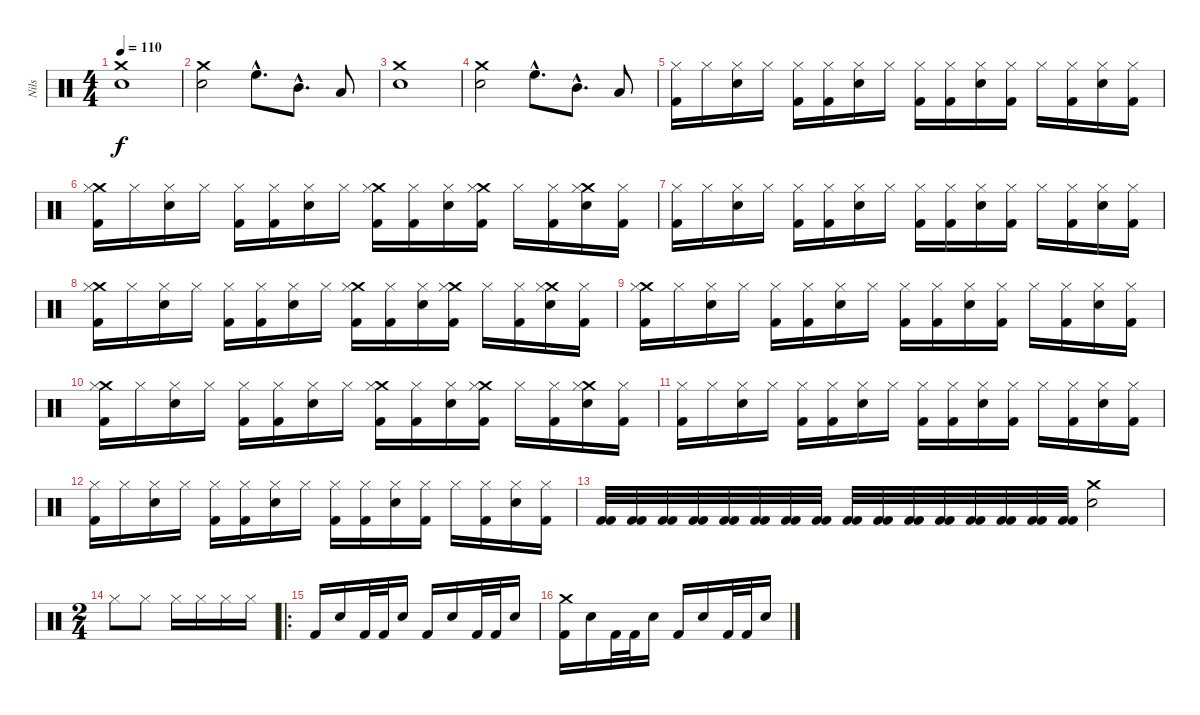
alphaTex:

\track ("Nils" "Nils") {instrument percussion}
\staff {score}
\articulation defaults
\ts (4 4)
\tempo 110
\clef neutral
\ks c
("Snare (hit) 2" "Crash medium (hit)").1{dy f} |
("Snare (hit) 2" "Crash medium (hit)").2 "High Floor Tom (hit)"{hac}.8{d} "Mid Tom (hit)"{hac}.8{d} "Low Tom (hit)".8 |
("Snare (hit) 2" "Crash medium (hit)").1 |
("Snare (hit) 2" "Crash medium (hit)").2 "High Floor Tom (hit)"{hac}.8{d} "Mid Tom (hit)"{hac}.8{d} "Low Tom (hit)".8 |
("Kick (hit) 2" "Hi-Hat (closed)").16 "Hi-Hat (closed)".16 ("Snare (hit) 2" "Hi-Hat (closed)").16 "Hi-Hat (closed)".16 ("Kick (hit) 2" "Hi-Hat (closed)").16 ("Kick (hit) 2" "Hi-Hat (closed)").16 ("Snare (hit) 2" "Hi-Hat (closed)").16 "Hi-Hat (closed)".16 ("Kick (hit) 2" "Hi-Hat (closed)").16 ("Kick (hit) 2" "Hi-Hat (closed)").16 ("Snare (hit) 2" "Hi-Hat (closed)").16 ("Kick (hit) 2" "Hi-Hat (closed)").16 "Hi-Hat (closed)".16 ("Kick (hit) 2" "Hi-Hat (closed)").16 ("Snare (hit) 2" "Hi-Hat (closed)").16 ("Kick (hit) 2" "Hi-Hat (closed)").16 |
("Crash medium (hit)" "Kick (hit) 2" "Hi-Hat (closed)").16 "Hi-Hat (closed)".16 ("Snare (hit) 2" "Hi-Hat (closed)").16 "Hi-Hat (closed)".16 ("Kick (hit) 2" "Hi-Hat (closed)").16 ("Kick (hit) 2" "Hi-Hat (closed)").16 ("Snare (hit) 2" "Hi-Hat (closed)").16 "Hi-Hat (closed)".16 ("Crash medium (hit)" "Kick (hit) 2" "Hi-Hat (closed)").16 ("Kick (hit) 2" "Hi-Hat (closed)").16 ("Snare (hit) 2" "Hi-Hat (closed)").16 ("Crash medium (hit)" "Kick (hit) 2" "Hi-Hat (closed)").16 "Hi-Hat (closed)".16 ("Kick (hit) 2" "Hi-Hat (closed)").16 ("Crash medium (hit)" "Snare (hit) 2" "Hi-Hat (closed)").16 ("Kick (hit) 2" "Hi-Hat (closed)").16 |
("Kick (hit) 2" "Hi-Hat (closed)").16 "Hi-Hat (closed)".16 ("Snare (hit) 2" "Hi-Hat (closed)").16 "Hi-Hat (closed)".16 ("Kick (hit) 2" "Hi-Hat (closed)").16 ("Kick (hit) 2" "Hi-Hat (closed)").16 ("Snare (hit) 2" "Hi-Hat (closed)").16 "Hi-Hat (closed)".16 ("Kick (hit) 2" "Hi-Hat (closed)").16 ("Kick (hit) 2" "Hi-Hat (closed)").16 ("Snare (hit) 2" "Hi-Hat (closed)").16 ("Kick (hit) 2" "Hi-Hat (closed)").16 "Hi-Hat (closed)".16 ("Kick (hit) 2" "Hi-Hat (closed)").16 ("Snare (hit) 2" "Hi-Hat (closed)").16 ("Kick (hit) 2" "Hi-Hat (closed)").16 |
("Crash medium (hit)" "Kick (hit) 2" "Hi-Hat (closed)").16 "Hi-Hat (closed)".16 ("Snare (hit) 2" "Hi-Hat (closed)").16 "Hi-Hat (closed)".16 ("Kick (hit) 2" "Hi-Hat (closed)").16 ("Kick (hit) 2" "Hi-Hat (closed)").16 ("Snare (hit) 2" "Hi-Hat (closed)").16 "Hi-Hat (closed)".16 ("Crash medium (hit)" "Kick (hit) 2" "Hi-Hat (closed)").16 ("Kick (hit) 2" "Hi-Hat (closed)").16 ("Snare (hit) 2" "Hi-Hat (closed)").16 ("Crash medium (hit)" "Kick (hit) 2" "Hi-Hat (closed)").16 "Hi-Hat (closed)".16 ("Kick (hit) 2" "Hi-Hat (closed)").16 ("Crash medium (hit)" "Snare (hit) 2" "Hi-Hat (closed)").16 ("Kick (hit) 2" "Hi-Hat (closed)").16 |
("Crash medium (hit)" "Kick (hit) 2" "Hi-Hat (closed)").16 "Hi-Hat (closed)".16 ("Snare (hit) 2" "Hi-Hat (closed)").16 "Hi-Hat (closed)".16 ("Kick (hit) 2" "Hi-Hat (closed)").16 ("Kick (hit) 2" "Hi-Hat (closed)").16 ("Snare (hit) 2" "Hi-Hat (closed)").16 "Hi-Hat (closed)".16 ("Kick (hit) 2" "Hi-Hat (closed)").16 ("Kick (hit) 2" "Hi-Hat (closed)").16 ("Snare (hit) 2" "Hi-Hat (closed)").16 ("Kick (hit) 2" "Hi-Hat (closed)").16 "Hi-Hat (closed)".16 ("Kick (hit) 2" "Hi-Hat (closed)").16 ("Snare (hit) 2" "Hi-Hat (closed)").16 ("Kick (hit) 2" "Hi-Hat (closed)").16 |
("Crash medium (hit)" "Kick (hit) 2" "Hi-Hat (closed)").16 "Hi-Hat (closed)".16 ("Snare (hit) 2" "Hi-Hat (closed)").16 "Hi-Hat (closed)".16 ("Kick (hit) 2" "Hi-Hat (closed)").16 ("Kick (hit) 2" "Hi-Hat (closed)").16 ("Snare (hit) 2" "Hi-Hat (closed)").16 "Hi-Hat (closed)".16 ("Crash medium (hit)" "Kick (hit) 2" "Hi-Hat (closed)").16 ("Kick (hit) 2" "Hi-Hat (closed)").16 ("Snare (hit) 2" "Hi-Hat (closed)").16 ("Crash medium (hit)" "Kick (hit) 2" "Hi-Hat (closed)").16 "Hi-Hat (closed)".16 ("Kick (hit) 2" "Hi-Hat (closed)").16 ("Crash medium (hit)" "Snare (hit) 2" "Hi-Hat (closed)").16 ("Kick (hit) 2" "Hi-Hat (closed)").16 |
("Kick (hit) 2" "Hi-Hat (closed)").16 "Hi-Hat (closed)".16 ("Snare (hit) 2" "Hi-Hat (closed)").16 "Hi-Hat (closed)".16 ("Kick (hit) 2" "Hi-Hat (closed)").16 ("Kick (hit) 2" "Hi-Hat (closed)").16 ("Snare (hit) 2" "Hi-Hat (closed)").16 "Hi-Hat (closed)".16 ("Kick (hit) 2" "Hi-Hat (closed)").16 ("Kick (hit) 2" "Hi-Hat (closed)").16 ("Snare (hit) 2" "Hi-Hat (closed)").16 ("Kick (hit) 2" "Hi-Hat (closed)").16 "Hi-Hat (closed)".16 ("Kick (hit) 2" "Hi-Hat (closed)").16 ("Snare (hit) 2" "Hi-Hat (closed)").16 ("Kick (hit) 2" "Hi-Hat (closed)").16 |
("Kick (hit) 2" "Hi-Hat (closed)").16 "Hi-Hat (closed)".16 ("Snare (hit) 2" "Hi-Hat (closed)").16 "Hi-Hat (closed)".16 ("Kick (hit) 2" "Hi-Hat (closed)").16 ("Kick (hit) 2" "Hi-Hat (closed)").16 ("Snare (hit) 2" "Hi-Hat (closed)").16 "Hi-Hat (closed)".16 ("Kick (hit) 2" "Hi-Hat (closed)").16 ("Kick (hit) 2" "Hi-Hat (closed)").16 ("Snare (hit) 2" "Hi-Hat (closed)").16 ("Kick (hit) 2" "Hi-Hat (closed)").16 "Hi-Hat (closed)".16 ("Kick (hit) 2" "Hi-Hat (closed)").16 ("Snare (hit) 2" "Hi-Hat (closed)").16 ("Kick (hit) 2" "Hi-Hat (closed)").16 |
("Kick (hit) 2" "Kick (hit) 2").32 ("Kick (hit) 2" "Kick (hit) 2").32 ("Kick (hit) 2" "Kick (hit) 2").32 ("Kick (hit) 2" "Kick (hit) 2").32 ("Kick (hit) 2" "Kick (hit) 2").32 ("Kick (hit) 2" "Kick (hit) 2").32 ("Kick (hit) 2" "Kick (hit) 2").32 ("Kick (hit) 2" "Kick (hit) 2").32 ("Kick (hit) 2" "Kick (hit) 2").32 ("Kick (hit) 2" "Kick (hit) 2").32 ("Kick (hit) 2" "Kick (hit) 2").32 ("Kick (hit) 2" "Kick (hit) 2").32 ("Kick (hit) 2" "Kick (hit) 2").32 ("Kick (hit) 2" "Kick (hit) 2").32 ("Kick (hit) 2" "Kick (hit) 2").32 ("Kick (hit) 2" "Kick (hit) 2").32 ("Crash medium (hit)" "Snare (hit) 2").2 |
\ts (2 4)
"Hi-Hat (closed)".8 "Hi-Hat (closed)".8 "Hi-Hat (closed)".16 "Hi-Hat (closed)".16 "Hi-Hat (closed)".16 "Hi-Hat (closed)".16 |
\ro "Kick (hit) 2".16 "Snare (hit) 2".16 "Kick (hit) 2".32 "Kick (hit) 2".32 "Snare (hit) 2".16 "Kick (hit) 2".16 "Snare (hit) 2".16 "Kick (hit) 2".32 "Kick (hit) 2".32 "Snare (hit) 2".16
|
("Crash medium (hit)" "Kick (hit) 2").16 "Snare (hit) 2".16 "Kick (hit) 2".32 "Kick (hit) 2".32 "Snare (hit) 2".16 "Kick (hit) 2".16 "Snare (hit) 2".16 "Kick (hit) 2".32 "Kick (hit) 2".32 "Snare (hit) 2".16
